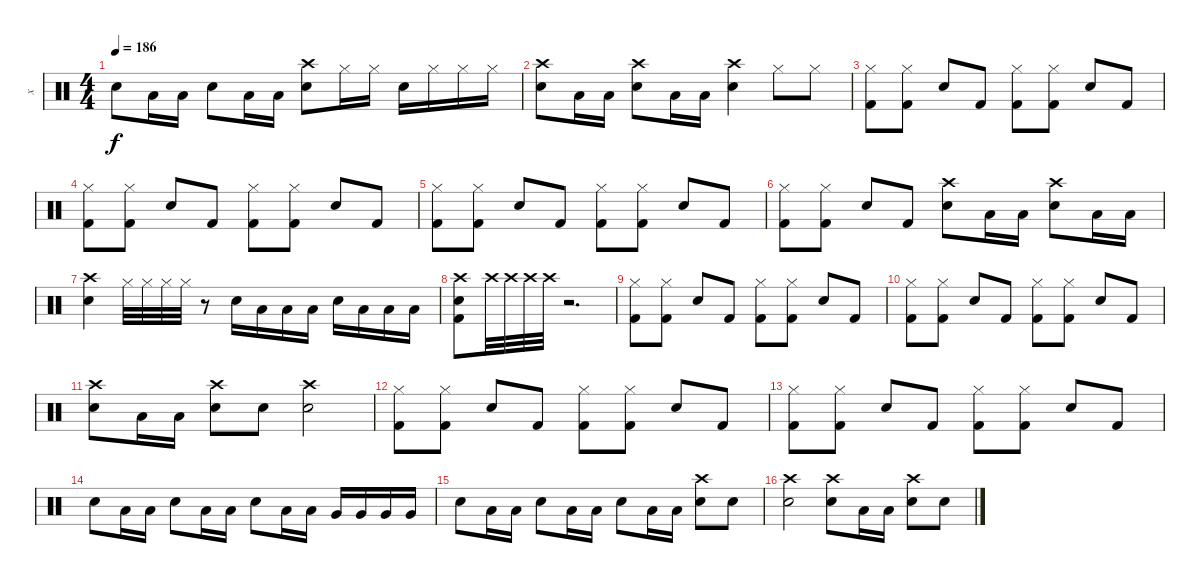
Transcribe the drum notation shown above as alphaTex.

\track ("x" "x") {instrument percussion}
\staff {score}
\articulation defaults
\ts (4 4)
\tempo 186
\clef neutral
\ks c "Snare (hit) 2".8{dy f} "Low Tom (hit)".16 "Low Tom (hit)".16 "Snare (hit) 2".8 "Low Tom (hit)".16 "Low Tom (hit)".16
("Crash high (hit)" "Snare (hit) 2").8 "Hi-Hat (closed)".16 "Hi-Hat (closed)".16 "Snare (hit) 2".16 "Hi-Hat (closed)".16 "Hi-Hat (closed)".16 "Hi-Hat (closed)".16 |
("Crash high (hit)" "Snare (hit) 2").8 "Low Tom (hit)".16 "Low Tom (hit)".16 ("Crash high (hit)" "Snare (hit) 2").8 "Low Tom (hit)".16 "Low Tom (hit)".16 ("Crash high (hit)" "Snare (hit) 2").4 "Hi-Hat (closed)".8 "Hi-Hat (closed)".8 |
("Hi-Hat (closed)" "Kick (hit) 2").8 ("Hi-Hat (closed)" "Kick (hit) 2").8 "Snare (hit) 2".8 "Kick (hit) 2".8 ("Hi-Hat (closed)" "Kick (hit) 2").8 ("Hi-Hat (closed)" "Kick (hit) 2").8 "Snare (hit) 2".8 "Kick (hit) 2".8 |
("Hi-Hat (closed)" "Kick (hit) 2").8 ("Hi-Hat (closed)" "Kick (hit) 2").8 "Snare (hit) 2".8 "Kick (hit) 2".8 ("Hi-Hat (closed)" "Kick (hit) 2").8 ("Hi-Hat (closed)" "Kick (hit) 2").8 "Snare (hit) 2".8 "Kick (hit) 2".8 |
("Hi-Hat (closed)" "Kick (hit) 2").8 ("Hi-Hat (closed)" "Kick (hit) 2").8 "Snare (hit) 2".8 "Kick (hit) 2".8 ("Hi-Hat (closed)" "Kick (hit) 2").8 ("Hi-Hat (closed)" "Kick (hit) 2").8 "Snare (hit) 2".8 "Kick (hit) 2".8 |
("Hi-Hat (closed)" "Kick (hit) 2").8 ("Hi-Hat (closed)" "Kick (hit) 2").8 "Snare (hit) 2".8 "Kick (hit) 2".8 ("Crash high (hit)" "Snare (hit) 2").8 "Low Tom (hit)".16 "Low Tom (hit)".16 ("Crash high (hit)" "Snare (hit) 2").8 "Low Tom (hit)".16 "Low Tom (hit)".16 |
("Crash high (hit)" "Snare (hit) 2").4 "Hi-Hat (closed)".32 "Hi-Hat (closed)".32 "Hi-Hat (closed)".32 "Hi-Hat (closed)".32 r.8 "Snare (hit) 2".16 "Low Tom (hit)".16 "Low Tom (hit)".16 "Low Tom (hit)".16 "Snare (hit) 2".16 "Low Tom (hit)".16 "Low Tom (hit)".16 "Low Tom (hit)".16 |
("Crash high (hit)" "Snare (hit) 2" "Kick (hit) 2").8 "Crash high (hit)".32 "Crash high (hit)".32 "Crash high (hit)".32 "Crash high (hit)".32 r.2{d} |
("Hi-Hat (closed)" "Kick (hit) 2").8 ("Hi-Hat (closed)" "Kick (hit) 2").8 "Snare (hit) 2".8 "Kick (hit) 2".8 ("Hi-Hat (closed)" "Kick (hit) 2").8 ("Hi-Hat (closed)" "Kick (hit) 2").8 "Snare (hit) 2".8 "Kick (hit) 2".8 |
("Hi-Hat (closed)" "Kick (hit) 2").8 ("Hi-Hat (closed)" "Kick (hit) 2").8 "Snare (hit) 2".8 "Kick (hit) 2".8 ("Hi-Hat (closed)" "Kick (hit) 2").8 ("Hi-Hat (closed)" "Kick (hit) 2").8 "Snare (hit) 2".8 "Kick (hit) 2".8 |
("Crash high (hit)" "Snare (hit) 2").8 "Low Tom (hit)".16 "Low Tom (hit)".16 ("Crash high (hit)" "Snare (hit) 2").8 "Snare (hit) 2".8 ("Crash high (hit)" "Snare (hit) 2").2 |
("Hi-Hat (closed)" "Kick (hit) 2").8 ("Hi-Hat (closed)" "Kick (hit) 2").8 "Snare (hit) 2".8 "Kick (hit) 2".8 ("Hi-Hat (closed)" "Kick (hit) 2").8 ("Hi-Hat (closed)" "Kick (hit) 2").8 "Snare (hit) 2".8 "Kick (hit) 2".8 |
("Hi-Hat (closed)" "Kick (hit) 2").8 ("Hi-Hat (closed)" "Kick (hit) 2").8 "Snare (hit) 2".8 "Kick (hit) 2".8 ("Hi-Hat (closed)" "Kick (hit) 2").8 ("Hi-Hat (closed)" "Kick (hit) 2").8 "Snare (hit) 2".8 "Kick (hit) 2".8 |
"Snare (hit) 2".8 "Low Tom (hit)".16 "Low Tom (hit)".16 "Snare (hit) 2".8 "Low Tom (hit)".16 "Low Tom (hit)".16 "Snare (hit) 2".8 "Low Tom (hit)".16 "Low Tom (hit)".16 "Very Low Tom (hit)".16 "Very Low Tom (hit)".16 "Very Low Tom (hit)".16 "Very Low Tom (hit)".16 |
"Snare (hit) 2".8 "Low Tom (hit)".16 "Low Tom (hit)".16 "Snare (hit) 2".8 "Low Tom (hit)".16 "Low Tom (hit)".16 "Snare (hit) 2".8 "Low Tom (hit)".16 "Low Tom (hit)".16 ("Crash high (hit)" "Snare (hit) 2").8 "Snare (hit) 2".8 |
("Crash high (hit)" "Snare (hit) 2").2 ("Crash high (hit)" "Snare (hit) 2").8 "Low Tom (hit)".16 "Low Tom (hit)".16 ("Crash high (hit)" "Snare (hit) 2").8 "Snare (hit) 2".8
